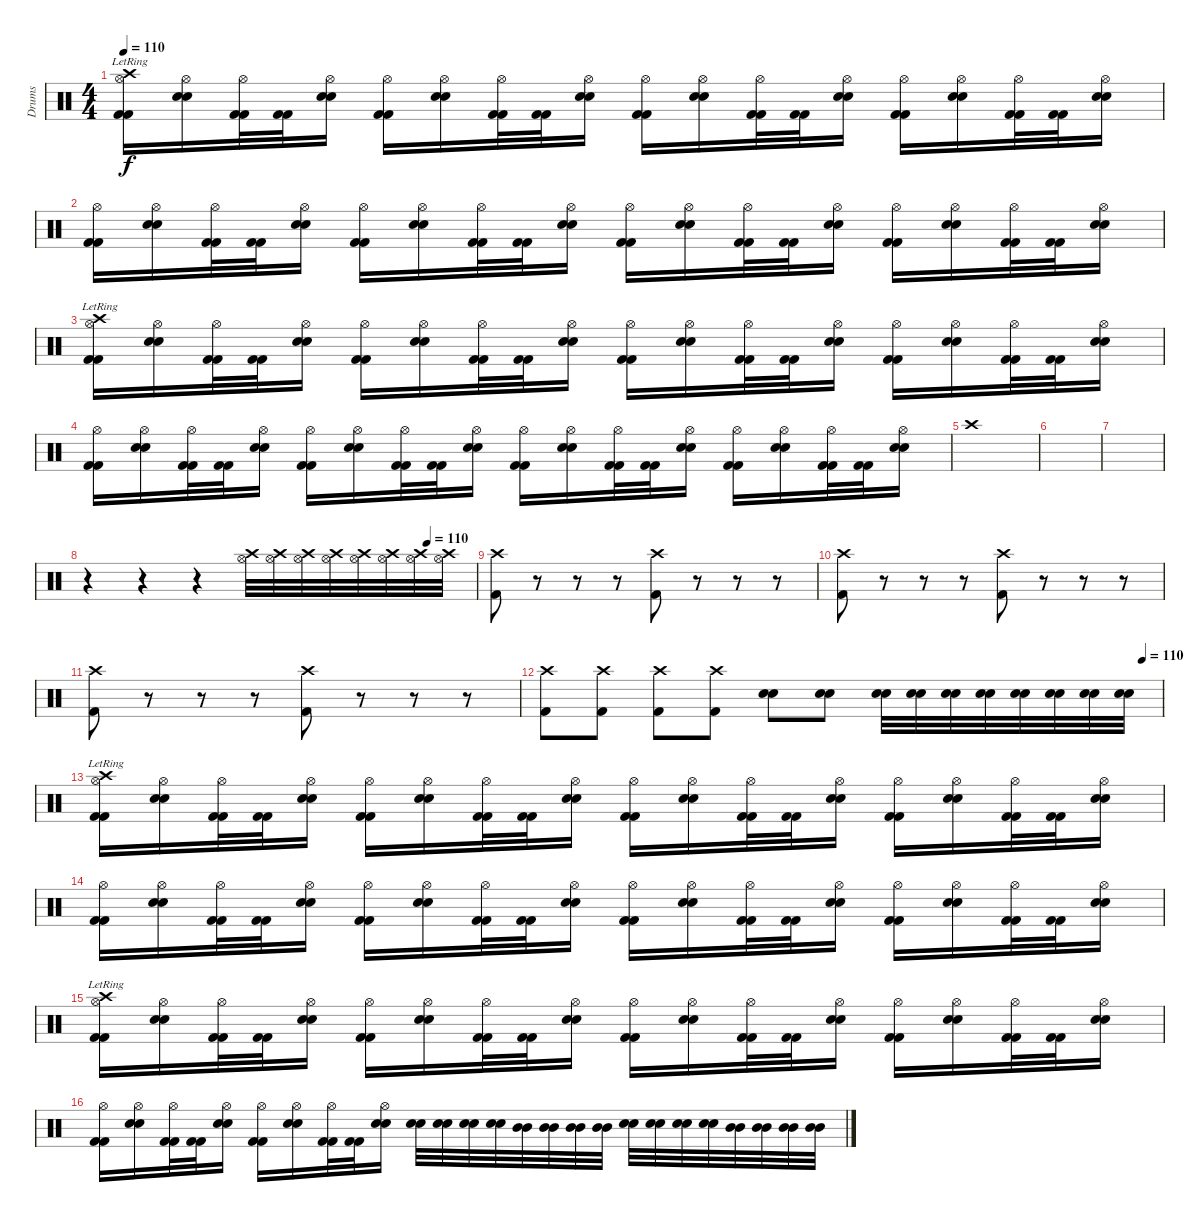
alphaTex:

\track ("Drums" "Drums") {instrument percussion}
\staff {score}
\articulation defaults
\ts (4 4)
\tempo 110
\clef neutral
\ks c
("Kick (hit) 2" "Kick (hit) 2" "Hi-Hat (open)" "Crash high (hit)"{lr}).16{dy f} ("Snare (hit) 2" "Snare (hit) 2" "Hi-Hat (open)").16 ("Kick (hit) 2" "Kick (hit) 2" "Hi-Hat (open)").32 ("Kick (hit) 2" "Kick (hit) 2").32 ("Snare (hit) 2" "Snare (hit) 2" "Hi-Hat (open)").16 ("Kick (hit) 2" "Kick (hit) 2" "Hi-Hat (open)").16 ("Snare (hit) 2" "Snare (hit) 2" "Hi-Hat (open)").16 ("Kick (hit) 2" "Kick (hit) 2" "Hi-Hat (open)").32 ("Kick (hit) 2" "Kick (hit) 2").32 ("Snare (hit) 2" "Snare (hit) 2" "Hi-Hat (open)").16 ("Kick (hit) 2" "Kick (hit) 2" "Hi-Hat (open)").16 ("Snare (hit) 2" "Snare (hit) 2" "Hi-Hat (open)").16 ("Kick (hit) 2" "Kick (hit) 2" "Hi-Hat (open)").32 ("Kick (hit) 2" "Kick (hit) 2").32 ("Snare (hit) 2" "Snare (hit) 2" "Hi-Hat (open)").16 ("Kick (hit) 2" "Kick (hit) 2" "Hi-Hat (open)").16 ("Snare (hit) 2" "Snare (hit) 2" "Hi-Hat (open)").16 ("Kick (hit) 2" "Kick (hit) 2" "Hi-Hat (open)").32 ("Kick (hit) 2" "Kick (hit) 2").32 ("Snare (hit) 2" "Snare (hit) 2" "Hi-Hat (open)").16 |
("Kick (hit) 2" "Kick (hit) 2" "Hi-Hat (open)").16 ("Snare (hit) 2" "Snare (hit) 2" "Hi-Hat (open)").16 ("Kick (hit) 2" "Kick (hit) 2" "Hi-Hat (open)").32 ("Kick (hit) 2" "Kick (hit) 2").32 ("Snare (hit) 2" "Snare (hit) 2" "Hi-Hat (open)").16 ("Kick (hit) 2" "Kick (hit) 2" "Hi-Hat (open)").16 ("Snare (hit) 2" "Snare (hit) 2" "Hi-Hat (open)").16 ("Kick (hit) 2" "Kick (hit) 2" "Hi-Hat (open)").32 ("Kick (hit) 2" "Kick (hit) 2").32 ("Snare (hit) 2" "Snare (hit) 2" "Hi-Hat (open)").16 ("Kick (hit) 2" "Kick (hit) 2" "Hi-Hat (open)").16 ("Snare (hit) 2" "Snare (hit) 2" "Hi-Hat (open)").16 ("Kick (hit) 2" "Kick (hit) 2" "Hi-Hat (open)").32 ("Kick (hit) 2" "Kick (hit) 2").32 ("Snare (hit) 2" "Snare (hit) 2" "Hi-Hat (open)").16 ("Kick (hit) 2" "Kick (hit) 2" "Hi-Hat (open)").16 ("Snare (hit) 2" "Snare (hit) 2" "Hi-Hat (open)").16 ("Kick (hit) 2" "Kick (hit) 2" "Hi-Hat (open)").32 ("Kick (hit) 2" "Kick (hit) 2").32 ("Snare (hit) 2" "Snare (hit) 2" "Hi-Hat (open)").16 |
("Kick (hit) 2" "Kick (hit) 2" "Hi-Hat (open)" "Crash high (hit)"{lr}).16 ("Snare (hit) 2" "Snare (hit) 2" "Hi-Hat (open)").16 ("Kick (hit) 2" "Kick (hit) 2" "Hi-Hat (open)").32 ("Kick (hit) 2" "Kick (hit) 2").32 ("Snare (hit) 2" "Snare (hit) 2" "Hi-Hat (open)").16 ("Kick (hit) 2" "Kick (hit) 2" "Hi-Hat (open)").16 ("Snare (hit) 2" "Snare (hit) 2" "Hi-Hat (open)").16 ("Kick (hit) 2" "Kick (hit) 2" "Hi-Hat (open)").32 ("Kick (hit) 2" "Kick (hit) 2").32 ("Snare (hit) 2" "Snare (hit) 2" "Hi-Hat (open)").16 ("Kick (hit) 2" "Kick (hit) 2" "Hi-Hat (open)").16 ("Snare (hit) 2" "Snare (hit) 2" "Hi-Hat (open)").16 ("Kick (hit) 2" "Kick (hit) 2" "Hi-Hat (open)").32 ("Kick (hit) 2" "Kick (hit) 2").32 ("Snare (hit) 2" "Snare (hit) 2" "Hi-Hat (open)").16 ("Kick (hit) 2" "Kick (hit) 2" "Hi-Hat (open)").16 ("Snare (hit) 2" "Snare (hit) 2" "Hi-Hat (open)").16 ("Kick (hit) 2" "Kick (hit) 2" "Hi-Hat (open)").32 ("Kick (hit) 2" "Kick (hit) 2").32 ("Snare (hit) 2" "Snare (hit) 2" "Hi-Hat (open)").16 |
("Kick (hit) 2" "Kick (hit) 2" "Hi-Hat (open)").16 ("Snare (hit) 2" "Snare (hit) 2" "Hi-Hat (open)").16 ("Kick (hit) 2" "Kick (hit) 2" "Hi-Hat (open)").32 ("Kick (hit) 2" "Kick (hit) 2").32 ("Snare (hit) 2" "Snare (hit) 2" "Hi-Hat (open)").16 ("Kick (hit) 2" "Kick (hit) 2" "Hi-Hat (open)").16 ("Snare (hit) 2" "Snare (hit) 2" "Hi-Hat (open)").16 ("Kick (hit) 2" "Kick (hit) 2" "Hi-Hat (open)").32 ("Kick (hit) 2" "Kick (hit) 2").32 ("Snare (hit) 2" "Snare (hit) 2" "Hi-Hat (open)").16 ("Kick (hit) 2" "Kick (hit) 2" "Hi-Hat (open)").16 ("Snare (hit) 2" "Snare (hit) 2" "Hi-Hat (open)").16 ("Kick (hit) 2" "Kick (hit) 2" "Hi-Hat (open)").32 ("Kick (hit) 2" "Kick (hit) 2").32 ("Snare (hit) 2" "Snare (hit) 2" "Hi-Hat (open)").16 ("Kick (hit) 2" "Kick (hit) 2" "Hi-Hat (open)").16 ("Snare (hit) 2" "Snare (hit) 2" "Hi-Hat (open)").16 ("Kick (hit) 2" "Kick (hit) 2" "Hi-Hat (open)").32 ("Kick (hit) 2" "Kick (hit) 2").32 ("Snare (hit) 2" "Snare (hit) 2" "Hi-Hat (open)").16 |
"Crash high (hit)".1 |
|
|
\tempo (110 0.875)
r.4 r.4 r.4 ("Crash high (hit)" "Hi-Hat (open)").32 ("Crash high (hit)" "Hi-Hat (open)").32 ("Crash high (hit)" "Hi-Hat (open)").32 ("Crash high (hit)" "Hi-Hat (open)").32 ("Crash high (hit)" "Hi-Hat (open)").32 ("Crash high (hit)" "Hi-Hat (open)").32 ("Crash high (hit)" "Hi-Hat (open)").32 ("Crash high (hit)" "Hi-Hat (open)").32 |
("Crash high (hit)" "Kick (hit) 2").8 r.8 r.8 r.8 ("Crash high (hit)" "Kick (hit) 2").8 r.8 r.8 r.8 |
("Crash high (hit)" "Kick (hit) 2").8 r.8 r.8 r.8 ("Crash high (hit)" "Kick (hit) 2").8 r.8 r.8 r.8 |
("Crash high (hit)" "Kick (hit) 2").8 r.8 r.8 r.8 ("Crash high (hit)" "Kick (hit) 2").8 r.8 r.8 r.8 |
\tempo (110 0.96875)
("Crash high (hit)" "Kick (hit) 2").8 ("Crash high (hit)" "Kick (hit) 2").8 ("Crash high (hit)" "Kick (hit) 2").8 ("Crash high (hit)" "Kick (hit) 2").8 ("Snare (hit) 2" "Snare (hit) 2").8 ("Snare (hit) 2" "Snare (hit) 2").8 ("Snare (hit) 2" "Snare (hit) 2").32 ("Snare (hit) 2" "Snare (hit) 2").32 ("Snare (hit) 2" "Snare (hit) 2").32 ("Snare (hit) 2" "Snare (hit) 2").32 ("Snare (hit) 2" "Snare (hit) 2").32 ("Snare (hit) 2" "Snare (hit) 2").32 ("Snare (hit) 2" "Snare (hit) 2").32 ("Snare (hit) 2" "Snare (hit) 2").32 |
("Kick (hit) 2" "Kick (hit) 2" "Hi-Hat (open)" "Crash high (hit)"{lr}).16 ("Snare (hit) 2" "Snare (hit) 2" "Hi-Hat (open)").16 ("Kick (hit) 2" "Kick (hit) 2" "Hi-Hat (open)").32 ("Kick (hit) 2" "Kick (hit) 2").32 ("Snare (hit) 2" "Snare (hit) 2" "Hi-Hat (open)").16 ("Kick (hit) 2" "Kick (hit) 2" "Hi-Hat (open)").16 ("Snare (hit) 2" "Snare (hit) 2" "Hi-Hat (open)").16 ("Kick (hit) 2" "Kick (hit) 2" "Hi-Hat (open)").32 ("Kick (hit) 2" "Kick (hit) 2").32 ("Snare (hit) 2" "Snare (hit) 2" "Hi-Hat (open)").16 ("Kick (hit) 2" "Kick (hit) 2" "Hi-Hat (open)").16 ("Snare (hit) 2" "Snare (hit) 2" "Hi-Hat (open)").16 ("Kick (hit) 2" "Kick (hit) 2" "Hi-Hat (open)").32 ("Kick (hit) 2" "Kick (hit) 2").32 ("Snare (hit) 2" "Snare (hit) 2" "Hi-Hat (open)").16 ("Kick (hit) 2" "Kick (hit) 2" "Hi-Hat (open)").16 ("Snare (hit) 2" "Snare (hit) 2" "Hi-Hat (open)").16 ("Kick (hit) 2" "Kick (hit) 2" "Hi-Hat (open)").32 ("Kick (hit) 2" "Kick (hit) 2").32 ("Snare (hit) 2" "Snare (hit) 2" "Hi-Hat (open)").16 |
("Kick (hit) 2" "Kick (hit) 2" "Hi-Hat (open)").16 ("Snare (hit) 2" "Snare (hit) 2" "Hi-Hat (open)").16 ("Kick (hit) 2" "Kick (hit) 2" "Hi-Hat (open)").32 ("Kick (hit) 2" "Kick (hit) 2").32 ("Snare (hit) 2" "Snare (hit) 2" "Hi-Hat (open)").16 ("Kick (hit) 2" "Kick (hit) 2" "Hi-Hat (open)").16 ("Snare (hit) 2" "Snare (hit) 2" "Hi-Hat (open)").16 ("Kick (hit) 2" "Kick (hit) 2" "Hi-Hat (open)").32 ("Kick (hit) 2" "Kick (hit) 2").32 ("Snare (hit) 2" "Snare (hit) 2" "Hi-Hat (open)").16 ("Kick (hit) 2" "Kick (hit) 2" "Hi-Hat (open)").16 ("Snare (hit) 2" "Snare (hit) 2" "Hi-Hat (open)").16 ("Kick (hit) 2" "Kick (hit) 2" "Hi-Hat (open)").32 ("Kick (hit) 2" "Kick (hit) 2").32 ("Snare (hit) 2" "Snare (hit) 2" "Hi-Hat (open)").16 ("Kick (hit) 2" "Kick (hit) 2" "Hi-Hat (open)").16 ("Snare (hit) 2" "Snare (hit) 2" "Hi-Hat (open)").16 ("Kick (hit) 2" "Kick (hit) 2" "Hi-Hat (open)").32 ("Kick (hit) 2" "Kick (hit) 2").32 ("Snare (hit) 2" "Snare (hit) 2" "Hi-Hat (open)").16 |
("Kick (hit) 2" "Kick (hit) 2" "Hi-Hat (open)" "Crash high (hit)"{lr}).16 ("Snare (hit) 2" "Snare (hit) 2" "Hi-Hat (open)").16 ("Kick (hit) 2" "Kick (hit) 2" "Hi-Hat (open)").32 ("Kick (hit) 2" "Kick (hit) 2").32 ("Snare (hit) 2" "Snare (hit) 2" "Hi-Hat (open)").16 ("Kick (hit) 2" "Kick (hit) 2" "Hi-Hat (open)").16 ("Snare (hit) 2" "Snare (hit) 2" "Hi-Hat (open)").16 ("Kick (hit) 2" "Kick (hit) 2" "Hi-Hat (open)").32 ("Kick (hit) 2" "Kick (hit) 2").32 ("Snare (hit) 2" "Snare (hit) 2" "Hi-Hat (open)").16 ("Kick (hit) 2" "Kick (hit) 2" "Hi-Hat (open)").16 ("Snare (hit) 2" "Snare (hit) 2" "Hi-Hat (open)").16 ("Kick (hit) 2" "Kick (hit) 2" "Hi-Hat (open)").32 ("Kick (hit) 2" "Kick (hit) 2").32 ("Snare (hit) 2" "Snare (hit) 2" "Hi-Hat (open)").16 ("Kick (hit) 2" "Kick (hit) 2" "Hi-Hat (open)").16 ("Snare (hit) 2" "Snare (hit) 2" "Hi-Hat (open)").16 ("Kick (hit) 2" "Kick (hit) 2" "Hi-Hat (open)").32 ("Kick (hit) 2" "Kick (hit) 2").32 ("Snare (hit) 2" "Snare (hit) 2" "Hi-Hat (open)").16 |
("Kick (hit) 2" "Kick (hit) 2" "Hi-Hat (open)").16 ("Snare (hit) 2" "Snare (hit) 2" "Hi-Hat (open)").16 ("Kick (hit) 2" "Kick (hit) 2" "Hi-Hat (open)").32 ("Kick (hit) 2" "Kick (hit) 2").32 ("Snare (hit) 2" "Snare (hit) 2" "Hi-Hat (open)").16 ("Kick (hit) 2" "Kick (hit) 2" "Hi-Hat (open)").16 ("Snare (hit) 2" "Snare (hit) 2" "Hi-Hat (open)").16 ("Kick (hit) 2" "Kick (hit) 2" "Hi-Hat (open)").32 ("Kick (hit) 2" "Kick (hit) 2").32 ("Snare (hit) 2" "Snare (hit) 2" "Hi-Hat (open)").16 ("Snare (hit) 2" "Snare (hit) 2").32 ("Snare (hit) 2" "Snare (hit) 2").32 ("Snare (hit) 2" "Snare (hit) 2").32 ("Snare (hit) 2" "Snare (hit) 2").32 ("Mid Tom (hit)" "Mid Tom (hit)").32 ("Mid Tom (hit)" "Mid Tom (hit)").32 ("Mid Tom (hit)" "Mid Tom (hit)").32 ("Mid Tom (hit)" "Mid Tom (hit)").32 ("Snare (hit) 2" "Snare (hit) 2").32 ("Snare (hit) 2" "Snare (hit) 2").32 ("Snare (hit) 2" "Snare (hit) 2").32 ("Snare (hit) 2" "Snare (hit) 2").32 ("Mid Tom (hit)" "Mid Tom (hit)").32 ("Mid Tom (hit)" "Mid Tom (hit)").32 ("Mid Tom (hit)" "Mid Tom (hit)").32 ("Mid Tom (hit)" "Mid Tom (hit)").32
